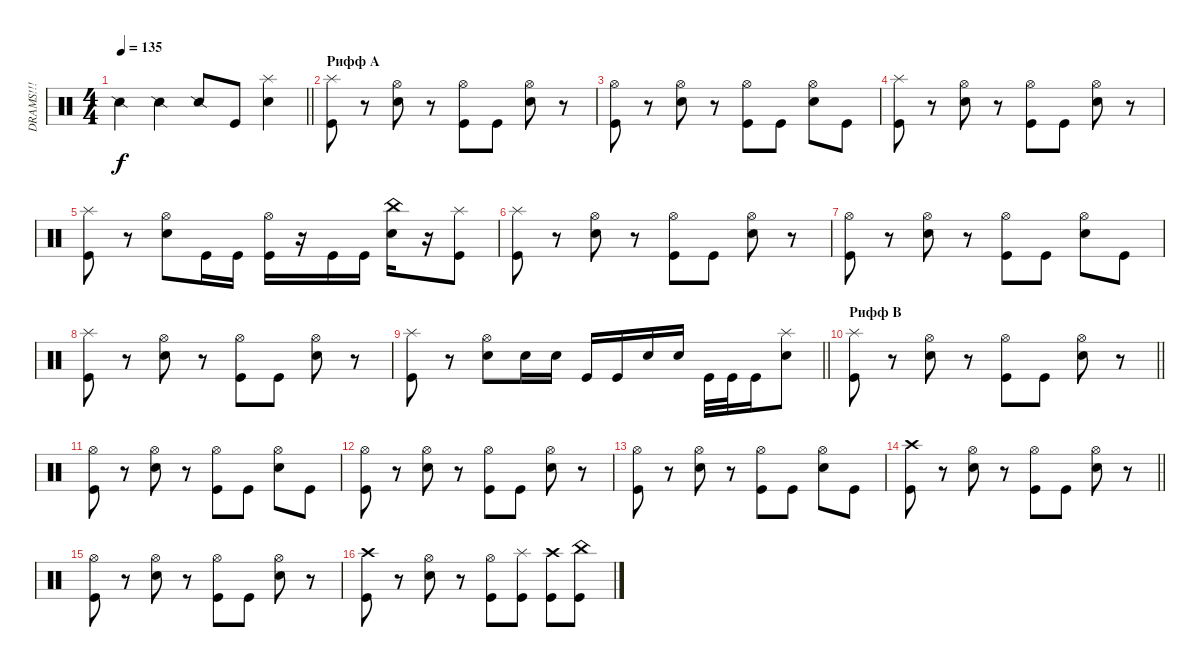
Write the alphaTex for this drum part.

\track ("DRAMS!!!" "DRAMS!!!") {instrument percussion}
\staff {score}
\articulation defaults
\ts (4 4)
\tempo 135
\clef neutral
\barLineRight lightlight
\ks c "Snare (side stick) 2".4{dy f} "Snare (side stick) 2".4 "Snare (side stick) 2".8 "Kick (hit)".8
("Electric Snare (hit)" "Splash (hit)").4 |
\section ("" "Рифф А")
("Kick (hit)" "Splash (hit)").8 r.8 ("Electric Snare (hit)" "Hi-Hat (open)").8 r.8 ("Kick (hit)" "Hi-Hat (open)").8 "Kick (hit)".8 ("Electric Snare (hit)" "Hi-Hat (open)").8 r.8 |
("Kick (hit)" "Hi-Hat (open)").8 r.8 ("Electric Snare (hit)" "Hi-Hat (open)").8 r.8 ("Kick (hit)" "Hi-Hat (open)").8 "Kick (hit)".8 ("Electric Snare (hit)" "Hi-Hat (open)").8 "Kick (hit)".8 |
("Kick (hit)" "Splash (hit)").8 r.8 ("Electric Snare (hit)" "Hi-Hat (open)").8 r.8 ("Kick (hit)" "Hi-Hat (open)").8 "Kick (hit)".8 ("Electric Snare (hit)" "Hi-Hat (open)").8 r.8 |
("Kick (hit)" "Splash (hit)").8 r.8 ("Electric Snare (hit)" "Hi-Hat (open)").8 "Kick (hit)".16 "Kick (hit)".16 ("Kick (hit)" "Hi-Hat (open)").16 r.16 "Kick (hit)".16 "Kick (hit)".16 ("Electric Snare (hit)" "China (hit)").16 r.16 ("Kick (hit)" "Splash (hit)").8 |
("Kick (hit)" "Splash (hit)").8 r.8 ("Electric Snare (hit)" "Hi-Hat (open)").8 r.8 ("Kick (hit)" "Hi-Hat (open)").8 "Kick (hit)".8 ("Electric Snare (hit)" "Hi-Hat (open)").8 r.8 |
("Kick (hit)" "Hi-Hat (open)").8 r.8 ("Electric Snare (hit)" "Hi-Hat (open)").8 r.8 ("Kick (hit)" "Hi-Hat (open)").8 "Kick (hit)".8 ("Electric Snare (hit)" "Hi-Hat (open)").8 "Kick (hit)".8 |
("Kick (hit)" "Splash (hit)").8 r.8 ("Electric Snare (hit)" "Hi-Hat (open)").8 r.8 ("Kick (hit)" "Hi-Hat (open)").8 "Kick (hit)".8 ("Electric Snare (hit)" "Hi-Hat (open)").8 r.8 |
\barLineRight lightlight
("Kick (hit)" "Splash (hit)").8 r.8 ("Electric Snare (hit)" "Hi-Hat (open)").8 "Electric Snare (hit)".16 "Electric Snare (hit)".16 "Kick (hit)".16 "Kick (hit)".16 "Electric Snare (hit)".16 "Electric Snare (hit)".16 "Kick (hit)".32 "Kick (hit)".32 "Kick (hit)".16 ("Electric Snare (hit)" "Splash (hit)").8 |
\section ("" "Рифф В")
\barLineRight lightlight
("Kick (hit)" "Splash (hit)").8 r.8 ("Electric Snare (hit)" "Hi-Hat (open)").8 r.8 ("Kick (hit)" "Hi-Hat (open)").8 "Kick (hit)".8 ("Electric Snare (hit)" "Hi-Hat (open)").8 r.8 |
\section ("" "")
("Kick (hit)" "Hi-Hat (open)").8 r.8 ("Electric Snare (hit)" "Hi-Hat (open)").8 r.8 ("Kick (hit)" "Hi-Hat (open)").8 "Kick (hit)".8 ("Electric Snare (hit)" "Hi-Hat (open)").8 "Kick (hit)".8 |
("Kick (hit)" "Hi-Hat (open)").8 r.8 ("Electric Snare (hit)" "Hi-Hat (open)").8 r.8 ("Kick (hit)" "Hi-Hat (open)").8 "Kick (hit)".8 ("Electric Snare (hit)" "Hi-Hat (open)").8 r.8 |
("Kick (hit)" "Hi-Hat (open)").8 r.8 ("Electric Snare (hit)" "Hi-Hat (open)").8 r.8 ("Kick (hit)" "Hi-Hat (open)").8 "Kick (hit)".8 ("Electric Snare (hit)" "Hi-Hat (open)").8 "Kick (hit)".8 |
\barLineRight lightlight
("Kick (hit)" "Crash high (hit)").8 r.8 ("Electric Snare (hit)" "Hi-Hat (open)").8 r.8 ("Kick (hit)" "Hi-Hat (open)").8 "Kick (hit)".8 ("Electric Snare (hit)" "Hi-Hat (open)").8 r.8 |
("Kick (hit)" "Hi-Hat (open)").8 r.8 ("Electric Snare (hit)" "Hi-Hat (open)").8 r.8 ("Kick (hit)" "Hi-Hat (open)").8 "Kick (hit)".8 ("Electric Snare (hit)" "Hi-Hat (open)").8 r.8 |
("Kick (hit)" "Crash high (hit)").8 r.8 ("Electric Snare (hit)" "Hi-Hat (open)").8 r.8 ("Kick (hit)" "Hi-Hat (open)").8 ("Kick (hit)" "Splash (hit)").8 ("Kick (hit)" "Crash high (hit)").8 ("Kick (hit)" "China (hit)").8
